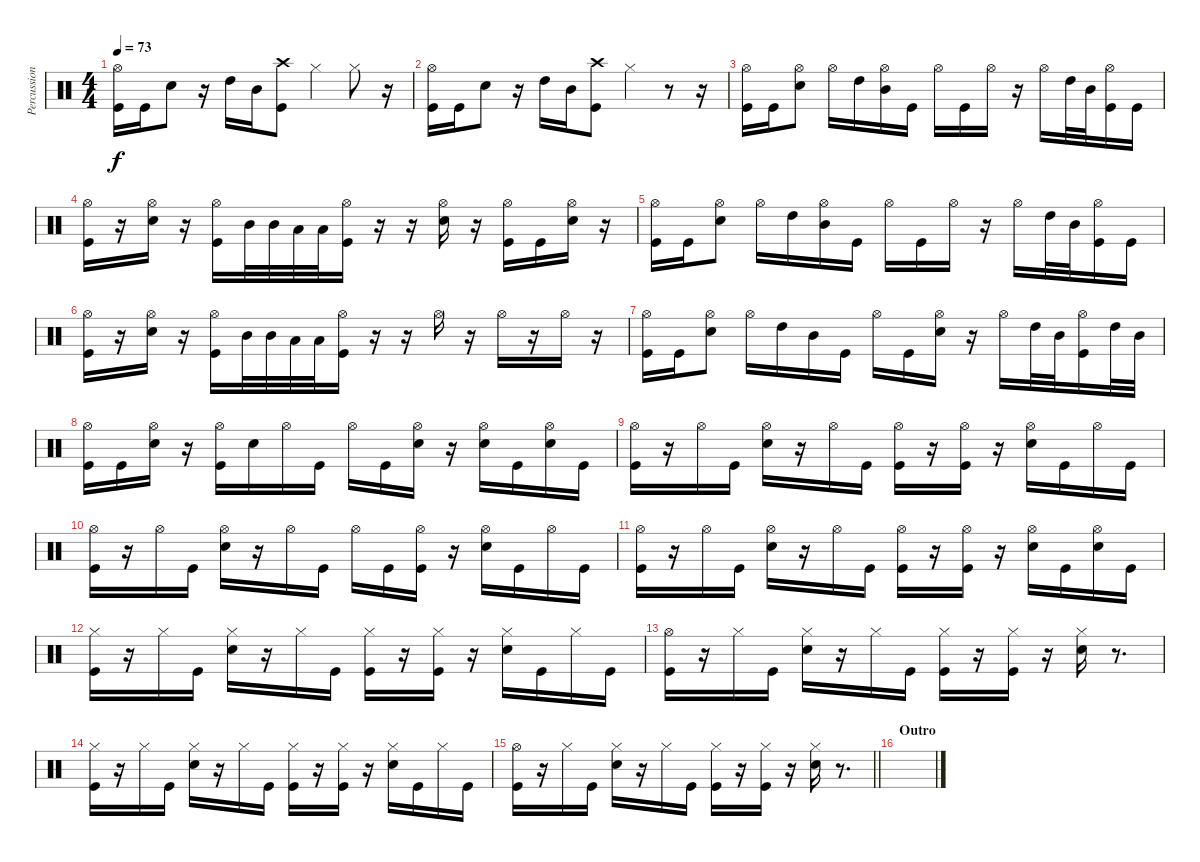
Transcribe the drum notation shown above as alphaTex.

\track ("Percussion" "Percussion") {instrument percussion}
\staff {score}
\articulation defaults
\ts (4 4)
\tempo 73
\clef neutral
\ks c
("Hi-Hat (open)" "Kick (hit)").16{dy f} "Kick (hit)".16 "Electric Snare (hit)".8 r.16 "High Tom (hit)".16 "Mid Tom (hit)".16 ("Crash high (hit)" "Kick (hit)").8 "Hi-Hat (closed)".4 "Hi-Hat (closed)".8 r.16 |
("Hi-Hat (open)" "Kick (hit)").16 "Kick (hit)".16 "Electric Snare (hit)".8 r.16 "High Tom (hit)".16 "Mid Tom (hit)".16 ("Crash high (hit)" "Kick (hit)").8 "Hi-Hat (closed)".4 r.8 r.16 |
("Hi-Hat (open)" "Kick (hit)").16 "Kick (hit)".16 ("Hi-Hat (open)" "Electric Snare (hit)").8 "Hi-Hat (open)".16 "High Tom (hit)".16 ("Hi-Hat (open)" "Mid Tom (hit)").16 "Kick (hit)".16 "Hi-Hat (open)".16 "Kick (hit)".16 "Hi-Hat (open)".16 r.16 "Hi-Hat (open)".16 "High Tom (hit)".32 "Mid Tom (hit)".32 ("Hi-Hat (open)" "Kick (hit)").16 "Kick (hit)".16 |
("Hi-Hat (open)" "Kick (hit)").16 r.16 ("Hi-Hat (open)" "Electric Snare (hit)").16 r.16 ("Hi-Hat (open)" "Kick (hit)").16 "Mid Tom (hit)".32 "Mid Tom (hit)".32 "Low Tom (hit)".32 "Low Tom (hit)".32 ("Hi-Hat (open)" "Kick (hit)").16 r.16 r.16 ("Hi-Hat (open)" "Electric Snare (hit)").16 r.16 ("Hi-Hat (open)" "Kick (hit)").16 "Kick (hit)".16 ("Hi-Hat (open)" "Electric Snare (hit)").16 r.16 |
("Hi-Hat (open)" "Kick (hit)").16 "Kick (hit)".16 ("Hi-Hat (open)" "Electric Snare (hit)").8 "Hi-Hat (open)".16 "High Tom (hit)".16 ("Hi-Hat (open)" "Mid Tom (hit)").16 "Kick (hit)".16 "Hi-Hat (open)".16 "Kick (hit)".16 "Hi-Hat (open)".16 r.16 "Hi-Hat (open)".16 "High Tom (hit)".32 "Mid Tom (hit)".32 ("Hi-Hat (open)" "Kick (hit)").16 "Kick (hit)".16 |
("Hi-Hat (open)" "Kick (hit)").16 r.16 ("Hi-Hat (open)" "Electric Snare (hit)").16 r.16 ("Hi-Hat (open)" "Kick (hit)").16 "Mid Tom (hit)".32 "Mid Tom (hit)".32 "Low Tom (hit)".32 "Low Tom (hit)".32 ("Hi-Hat (open)" "Kick (hit)").16 r.16 r.16 "Hi-Hat (open)".16 r.16 "Hi-Hat (open)".16 r.16 "Hi-Hat (open)".16 r.16 |
("Hi-Hat (open)" "Kick (hit)").16 "Kick (hit)".16 ("Hi-Hat (open)" "Electric Snare (hit)").8 "Hi-Hat (open)".16 "High Tom (hit)".16 "Mid Tom (hit)".16 "Kick (hit)".16 "Hi-Hat (open)".16 "Kick (hit)".16 ("Hi-Hat (open)" "Electric Snare (hit)").16 r.16 "Hi-Hat (open)".16 "High Tom (hit)".32 "Mid Tom (hit)".32 ("Hi-Hat (open)" "Kick (hit)").16 "High Tom (hit)".32 "Mid Tom (hit)".32 |
("Hi-Hat (open)" "Kick (hit)").16 "Kick (hit)".16 ("Hi-Hat (open)" "Electric Snare (hit)").16 r.16 ("Hi-Hat (open)" "Kick (hit)").16 "Electric Snare (hit)".16 "Hi-Hat (open)".16 "Kick (hit)".16 "Hi-Hat (open)".16 "Kick (hit)".16 ("Hi-Hat (open)" "Electric Snare (hit)").16 r.16 ("Hi-Hat (open)" "Electric Snare (hit)").16 "Kick (hit)".16 ("Hi-Hat (open)" "Electric Snare (hit)").16 "Kick (hit)".16 |
("Hi-Hat (open)" "Kick (hit)").16 r.16 "Hi-Hat (open)".16 "Kick (hit)".16 ("Hi-Hat (open)" "Electric Snare (hit)").16 r.16 "Hi-Hat (open)".16 "Kick (hit)".16 ("Hi-Hat (open)" "Kick (hit)").16 r.16 ("Hi-Hat (open)" "Kick (hit)").16 r.16 ("Hi-Hat (open)" "Electric Snare (hit)").16 "Kick (hit)".16 "Hi-Hat (open)".16 "Kick (hit)".16 |
("Hi-Hat (open)" "Kick (hit)").16 r.16 "Hi-Hat (open)".16 "Kick (hit)".16 ("Hi-Hat (open)" "Electric Snare (hit)").16 r.16 "Hi-Hat (open)".16 "Kick (hit)".16 "Hi-Hat (open)".16 "Kick (hit)".16 ("Hi-Hat (open)" "Kick (hit)").16 r.16 ("Hi-Hat (open)" "Electric Snare (hit)").16 "Kick (hit)".16 "Hi-Hat (open)".16 "Kick (hit)".16 |
("Hi-Hat (open)" "Kick (hit)").16 r.16 "Hi-Hat (open)".16 "Kick (hit)".16 ("Hi-Hat (open)" "Electric Snare (hit)").16 r.16 "Hi-Hat (open)".16 "Kick (hit)".16 ("Hi-Hat (open)" "Kick (hit)").16 r.16 ("Hi-Hat (open)" "Kick (hit)").16 r.16 ("Hi-Hat (open)" "Electric Snare (hit)").16 "Kick (hit)".16 ("Hi-Hat (open)" "Electric Snare (hit)").16 "Kick (hit)".16 |
("Hi-Hat (closed)" "Kick (hit)").16 r.16 "Hi-Hat (closed)".16 "Kick (hit)".16 ("Hi-Hat (closed)" "Electric Snare (hit)").16 r.16 "Hi-Hat (closed)".16 "Kick (hit)".16 ("Hi-Hat (closed)" "Kick (hit)").16 r.16 ("Hi-Hat (closed)" "Kick (hit)").16 r.16 ("Hi-Hat (closed)" "Electric Snare (hit)").16 "Kick (hit)".16 "Hi-Hat (closed)".16 "Kick (hit)".16 |
("Hi-Hat (open)" "Kick (hit)").16 r.16 "Hi-Hat (closed)".16 "Kick (hit)".16 ("Hi-Hat (closed)" "Electric Snare (hit)").16 r.16 "Hi-Hat (closed)".16 "Kick (hit)".16 ("Hi-Hat (closed)" "Kick (hit)").16 r.16 ("Hi-Hat (closed)" "Kick (hit)").16 r.16 ("Hi-Hat (closed)" "Electric Snare (hit)").16 r.8{d} |
("Hi-Hat (closed)" "Kick (hit)").16 r.16 "Hi-Hat (closed)".16 "Kick (hit)".16 ("Hi-Hat (closed)" "Electric Snare (hit)").16 r.16 "Hi-Hat (closed)".16 "Kick (hit)".16 ("Hi-Hat (closed)" "Kick (hit)").16 r.16 ("Hi-Hat (closed)" "Kick (hit)").16 r.16 ("Hi-Hat (closed)" "Electric Snare (hit)").16 "Kick (hit)".16 "Hi-Hat (closed)".16 "Kick (hit)".16 |
\barLineRight lightlight
("Hi-Hat (open)" "Kick (hit)").16 r.16 "Hi-Hat (closed)".16 "Kick (hit)".16 ("Hi-Hat (closed)" "Electric Snare (hit)").16 r.16 "Hi-Hat (closed)".16 "Kick (hit)".16 ("Hi-Hat (closed)" "Kick (hit)").16 r.16 ("Hi-Hat (closed)" "Kick (hit)").16 r.16 ("Hi-Hat (closed)" "Electric Snare (hit)").16 r.8{d} |
\section ("" "Outro")
